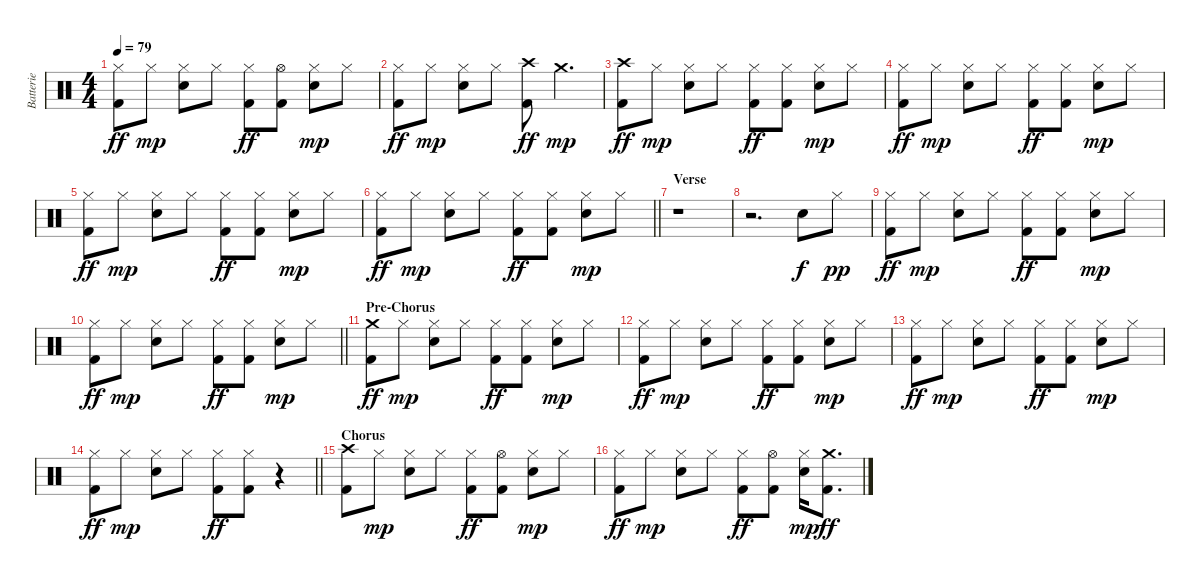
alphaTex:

\track ("Batterie" "Batterie") {instrument percussion}
\staff {score}
\articulation defaults
\ts (4 4)
\tempo 79
\clef neutral
\ks c
("Hi-Hat (closed)" "Kick (hit) 2").8{dy ff} "Hi-Hat (closed)".8{dy mp} ("Hi-Hat (closed)" "Electric Snare (hit)").8 "Hi-Hat (closed)".8 ("Hi-Hat (closed)" "Kick (hit) 2").8{dy ff} ("Hi-Hat (open)" "Kick (hit) 2").8 ("Hi-Hat (closed)" "Electric Snare (hit)").8{dy mp} "Hi-Hat (closed)".8 |
("Hi-Hat (closed)" "Kick (hit) 2").8{dy ff} "Hi-Hat (closed)".8{dy mp} ("Hi-Hat (closed)" "Electric Snare (hit)").8 "Hi-Hat (closed)".8 ("Crash high (hit)" "Kick (hit) 2").8{dy ff} "Crash medium (hit)".4{d dy mp} |
("Crash high (hit)" "Kick (hit) 2").8{dy ff} "Hi-Hat (closed)".8{dy mp} ("Hi-Hat (closed)" "Electric Snare (hit)").8 "Hi-Hat (closed)".8 ("Hi-Hat (closed)" "Kick (hit) 2").8{dy ff} ("Hi-Hat (closed)" "Kick (hit) 2").8 ("Hi-Hat (closed)" "Electric Snare (hit)").8{dy mp} "Hi-Hat (closed)".8 |
("Hi-Hat (closed)" "Kick (hit) 2").8{dy ff} "Hi-Hat (closed)".8{dy mp} ("Hi-Hat (closed)" "Electric Snare (hit)").8 "Hi-Hat (closed)".8 ("Hi-Hat (closed)" "Kick (hit) 2").8{dy ff} ("Hi-Hat (closed)" "Kick (hit) 2").8 ("Hi-Hat (closed)" "Electric Snare (hit)").8{dy mp} "Hi-Hat (closed)".8 |
("Hi-Hat (closed)" "Kick (hit) 2").8{dy ff} "Hi-Hat (closed)".8{dy mp} ("Hi-Hat (closed)" "Electric Snare (hit)").8 "Hi-Hat (closed)".8 ("Hi-Hat (closed)" "Kick (hit) 2").8{dy ff} ("Hi-Hat (closed)" "Kick (hit) 2").8 ("Hi-Hat (closed)" "Electric Snare (hit)").8{dy mp} "Hi-Hat (closed)".8 |
\barLineRight lightlight
("Hi-Hat (closed)" "Kick (hit) 2").8{dy ff} "Hi-Hat (closed)".8{dy mp} ("Hi-Hat (closed)" "Electric Snare (hit)").8 "Hi-Hat (closed)".8 ("Hi-Hat (closed)" "Kick (hit) 2").8{dy ff} ("Hi-Hat (closed)" "Kick (hit) 2").8 ("Hi-Hat (closed)" "Electric Snare (hit)").8{dy mp} "Hi-Hat (closed)".8 |
\section ("" "Verse")
r.1 |
r.2{d} "Electric Snare (hit)".8{dy f} "Hi-Hat (closed)".8{dy pp} |
("Hi-Hat (closed)" "Kick (hit) 2").8{dy ff} "Hi-Hat (closed)".8{dy mp} ("Hi-Hat (closed)" "Electric Snare (hit)").8 "Hi-Hat (closed)".8 ("Hi-Hat (closed)" "Kick (hit) 2").8{dy ff} ("Hi-Hat (closed)" "Kick (hit) 2").8 ("Hi-Hat (closed)" "Electric Snare (hit)").8{dy mp} "Hi-Hat (closed)".8 |
\barLineRight lightlight
("Hi-Hat (closed)" "Kick (hit) 2").8{dy ff} "Hi-Hat (closed)".8{dy mp} ("Hi-Hat (closed)" "Electric Snare (hit)").8 "Hi-Hat (closed)".8 ("Hi-Hat (closed)" "Kick (hit) 2").8{dy ff} ("Hi-Hat (closed)" "Kick (hit) 2").8 ("Hi-Hat (closed)" "Electric Snare (hit)").8{dy mp} "Hi-Hat (closed)".8 |
\section ("" "Pre-Chorus")
("Crash medium (hit)" "Kick (hit) 2").8{dy ff} "Hi-Hat (closed)".8{dy mp} ("Hi-Hat (closed)" "Electric Snare (hit)").8 "Hi-Hat (closed)".8 ("Hi-Hat (closed)" "Kick (hit) 2").8{dy ff} ("Hi-Hat (closed)" "Kick (hit) 2").8 ("Hi-Hat (closed)" "Electric Snare (hit)").8{dy mp} "Hi-Hat (closed)".8 |
("Hi-Hat (closed)" "Kick (hit) 2").8{dy ff} "Hi-Hat (closed)".8{dy mp} ("Hi-Hat (closed)" "Electric Snare (hit)").8 "Hi-Hat (closed)".8 ("Hi-Hat (closed)" "Kick (hit) 2").8{dy ff} ("Hi-Hat (closed)" "Kick (hit) 2").8 ("Hi-Hat (closed)" "Electric Snare (hit)").8{dy mp} "Hi-Hat (closed)".8 |
("Hi-Hat (closed)" "Kick (hit) 2").8{dy ff} "Hi-Hat (closed)".8{dy mp} ("Hi-Hat (closed)" "Electric Snare (hit)").8 "Hi-Hat (closed)".8 ("Hi-Hat (closed)" "Kick (hit) 2").8{dy ff} ("Hi-Hat (closed)" "Kick (hit) 2").8 ("Hi-Hat (closed)" "Electric Snare (hit)").8{dy mp} "Hi-Hat (closed)".8 |
\barLineRight lightlight
("Hi-Hat (closed)" "Kick (hit) 2").8{dy ff} "Hi-Hat (closed)".8{dy mp} ("Hi-Hat (closed)" "Electric Snare (hit)").8 "Hi-Hat (closed)".8 ("Hi-Hat (closed)" "Kick (hit) 2").8{dy ff} ("Hi-Hat (closed)" "Kick (hit) 2").8 r.4 |
\section ("" "Chorus")
("Crash high (hit)" "Kick (hit) 2").8 "Hi-Hat (closed)".8{dy mp} ("Hi-Hat (closed)" "Electric Snare (hit)").8 "Hi-Hat (closed)".8 ("Hi-Hat (closed)" "Kick (hit) 2").8{dy ff} ("Hi-Hat (open)" "Kick (hit) 2").8 ("Hi-Hat (closed)" "Electric Snare (hit)").8{dy mp} "Hi-Hat (closed)".8 |
("Hi-Hat (closed)" "Kick (hit) 2").8{dy ff} "Hi-Hat (closed)".8{dy mp} ("Hi-Hat (closed)" "Electric Snare (hit)").8 "Hi-Hat (closed)".8 ("Hi-Hat (closed)" "Kick (hit) 2").8{dy ff} ("Hi-Hat (open)" "Kick (hit) 2").8 ("Hi-Hat (closed)" "Electric Snare (hit)").16{dy mp} ("Crash medium (hit)" "Kick (hit) 2").8{d dy ff}
